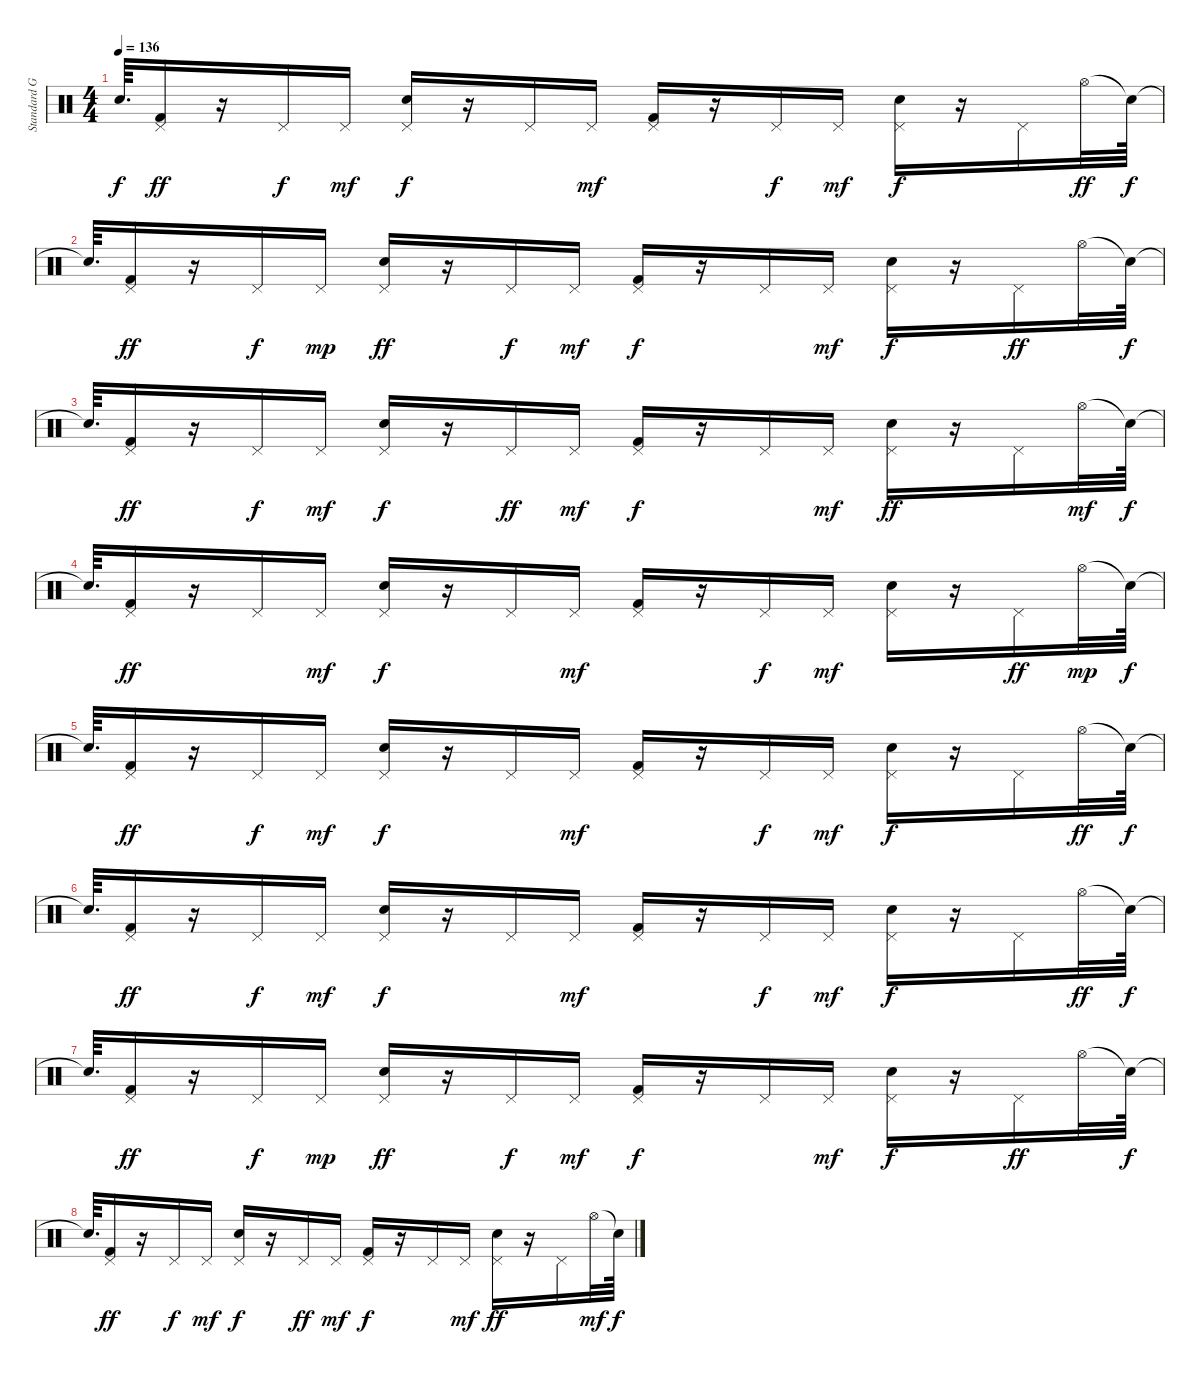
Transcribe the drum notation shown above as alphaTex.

\track ("Standard GM Drum Kit" "Standard G") {instrument percussion}
\staff {score}
\articulation defaults
\ts (4 4)
\tempo 136
\clef neutral
\ks c "Snare (hit)"{t}.64{d dy f}
("Pedal Hi-Hat (hit)" "Kick (hit) 2").16{dy ff} r.16 "Pedal Hi-Hat (hit)".16{dy f} "Pedal Hi-Hat (hit)".16{dy mf} ("Pedal Hi-Hat (hit)" "Electric Snare (hit)").16{dy f} r.16 "Pedal Hi-Hat (hit)".16 "Pedal Hi-Hat (hit)".16{dy mf} ("Pedal Hi-Hat (hit)" "Kick (hit) 2").16 r.16 "Pedal Hi-Hat (hit)".16{dy f} "Pedal Hi-Hat (hit)".16{dy mf} ("Pedal Hi-Hat (hit)" "Electric Snare (hit)").16{dy f} r.16 "Pedal Hi-Hat (hit)".16 "Hi-Hat (open)".32{dy ff} "Snare (hit)"{t}.64{dy f} |
"Snare (hit)"{t}.64{d} ("Pedal Hi-Hat (hit)" "Kick (hit) 2").16{dy ff} r.16 "Pedal Hi-Hat (hit)".16{dy f} "Pedal Hi-Hat (hit)".16{dy mp} ("Pedal Hi-Hat (hit)" "Electric Snare (hit)").16{dy ff} r.16 "Pedal Hi-Hat (hit)".16{dy f} "Pedal Hi-Hat (hit)".16{dy mf} ("Kick (hit) 2" "Pedal Hi-Hat (hit)").16{dy f} r.16 "Pedal Hi-Hat (hit)".16 "Pedal Hi-Hat (hit)".16{dy mf} ("Electric Snare (hit)" "Pedal Hi-Hat (hit)").16{dy f} r.16 "Pedal Hi-Hat (hit)".16{dy ff} "Hi-Hat (open)".32 "Snare (hit)"{t}.64{dy f} |
"Snare (hit)"{t}.64{d} ("Pedal Hi-Hat (hit)" "Kick (hit) 2").16{dy ff} r.16 "Pedal Hi-Hat (hit)".16{dy f} "Pedal Hi-Hat (hit)".16{dy mf} ("Pedal Hi-Hat (hit)" "Electric Snare (hit)").16{dy f} r.16 "Pedal Hi-Hat (hit)".16{dy ff} "Pedal Hi-Hat (hit)".16{dy mf} ("Kick (hit) 2" "Pedal Hi-Hat (hit)").16{dy f} r.16 "Pedal Hi-Hat (hit)".16 "Pedal Hi-Hat (hit)".16{dy mf} ("Electric Snare (hit)" "Pedal Hi-Hat (hit)").16{dy ff} r.16 "Pedal Hi-Hat (hit)".16 "Hi-Hat (open)".32{dy mf} "Snare (hit)"{t}.64{dy f} |
"Snare (hit)"{t}.64{d} ("Pedal Hi-Hat (hit)" "Kick (hit) 2").16{dy ff} r.16 "Pedal Hi-Hat (hit)".16 "Pedal Hi-Hat (hit)".16{dy mf} ("Pedal Hi-Hat (hit)" "Electric Snare (hit)").16{dy f} r.16 "Pedal Hi-Hat (hit)".16 "Pedal Hi-Hat (hit)".16{dy mf} ("Kick (hit) 2" "Pedal Hi-Hat (hit)").16 r.16 "Pedal Hi-Hat (hit)".16{dy f} "Pedal Hi-Hat (hit)".16{dy mf} ("Electric Snare (hit)" "Pedal Hi-Hat (hit)").16 r.16 "Pedal Hi-Hat (hit)".16{dy ff} "Hi-Hat (open)".32{dy mp} "Snare (hit)"{t}.64{dy f} |
"Snare (hit)"{t}.64{d} ("Pedal Hi-Hat (hit)" "Kick (hit) 2").16{dy ff} r.16 "Pedal Hi-Hat (hit)".16{dy f} "Pedal Hi-Hat (hit)".16{dy mf} ("Pedal Hi-Hat (hit)" "Electric Snare (hit)").16{dy f} r.16 "Pedal Hi-Hat (hit)".16 "Pedal Hi-Hat (hit)".16{dy mf} ("Pedal Hi-Hat (hit)" "Kick (hit) 2").16 r.16 "Pedal Hi-Hat (hit)".16{dy f} "Pedal Hi-Hat (hit)".16{dy mf} ("Pedal Hi-Hat (hit)" "Electric Snare (hit)").16{dy f} r.16 "Pedal Hi-Hat (hit)".16 "Hi-Hat (open)".32{dy ff} "Snare (hit)"{t}.64{dy f} |
"Snare (hit)"{t}.64{d} ("Pedal Hi-Hat (hit)" "Kick (hit) 2").16{dy ff} r.16 "Pedal Hi-Hat (hit)".16{dy f} "Pedal Hi-Hat (hit)".16{dy mf} ("Pedal Hi-Hat (hit)" "Electric Snare (hit)").16{dy f} r.16 "Pedal Hi-Hat (hit)".16 "Pedal Hi-Hat (hit)".16{dy mf} ("Pedal Hi-Hat (hit)" "Kick (hit) 2").16 r.16 "Pedal Hi-Hat (hit)".16{dy f} "Pedal Hi-Hat (hit)".16{dy mf} ("Pedal Hi-Hat (hit)" "Electric Snare (hit)").16{dy f} r.16 "Pedal Hi-Hat (hit)".16 "Hi-Hat (open)".32{dy ff} "Snare (hit)"{t}.64{dy f} |
"Snare (hit)"{t}.64{d} ("Pedal Hi-Hat (hit)" "Kick (hit) 2").16{dy ff} r.16 "Pedal Hi-Hat (hit)".16{dy f} "Pedal Hi-Hat (hit)".16{dy mp} ("Pedal Hi-Hat (hit)" "Electric Snare (hit)").16{dy ff} r.16 "Pedal Hi-Hat (hit)".16{dy f} "Pedal Hi-Hat (hit)".16{dy mf} ("Kick (hit) 2" "Pedal Hi-Hat (hit)").16{dy f} r.16 "Pedal Hi-Hat (hit)".16 "Pedal Hi-Hat (hit)".16{dy mf} ("Electric Snare (hit)" "Pedal Hi-Hat (hit)").16{dy f} r.16 "Pedal Hi-Hat (hit)".16{dy ff} "Hi-Hat (open)".32 "Snare (hit)"{t}.64{dy f} |
"Snare (hit)"{t}.64{d} ("Pedal Hi-Hat (hit)" "Kick (hit) 2").16{dy ff} r.16 "Pedal Hi-Hat (hit)".16{dy f} "Pedal Hi-Hat (hit)".16{dy mf} ("Pedal Hi-Hat (hit)" "Electric Snare (hit)").16{dy f} r.16 "Pedal Hi-Hat (hit)".16{dy ff} "Pedal Hi-Hat (hit)".16{dy mf} ("Kick (hit) 2" "Pedal Hi-Hat (hit)").16{dy f} r.16 "Pedal Hi-Hat (hit)".16 "Pedal Hi-Hat (hit)".16{dy mf} ("Electric Snare (hit)" "Pedal Hi-Hat (hit)").16{dy ff} r.16 "Pedal Hi-Hat (hit)".16 "Hi-Hat (open)".32{dy mf} "Snare (hit)"{t}.64{dy f}
